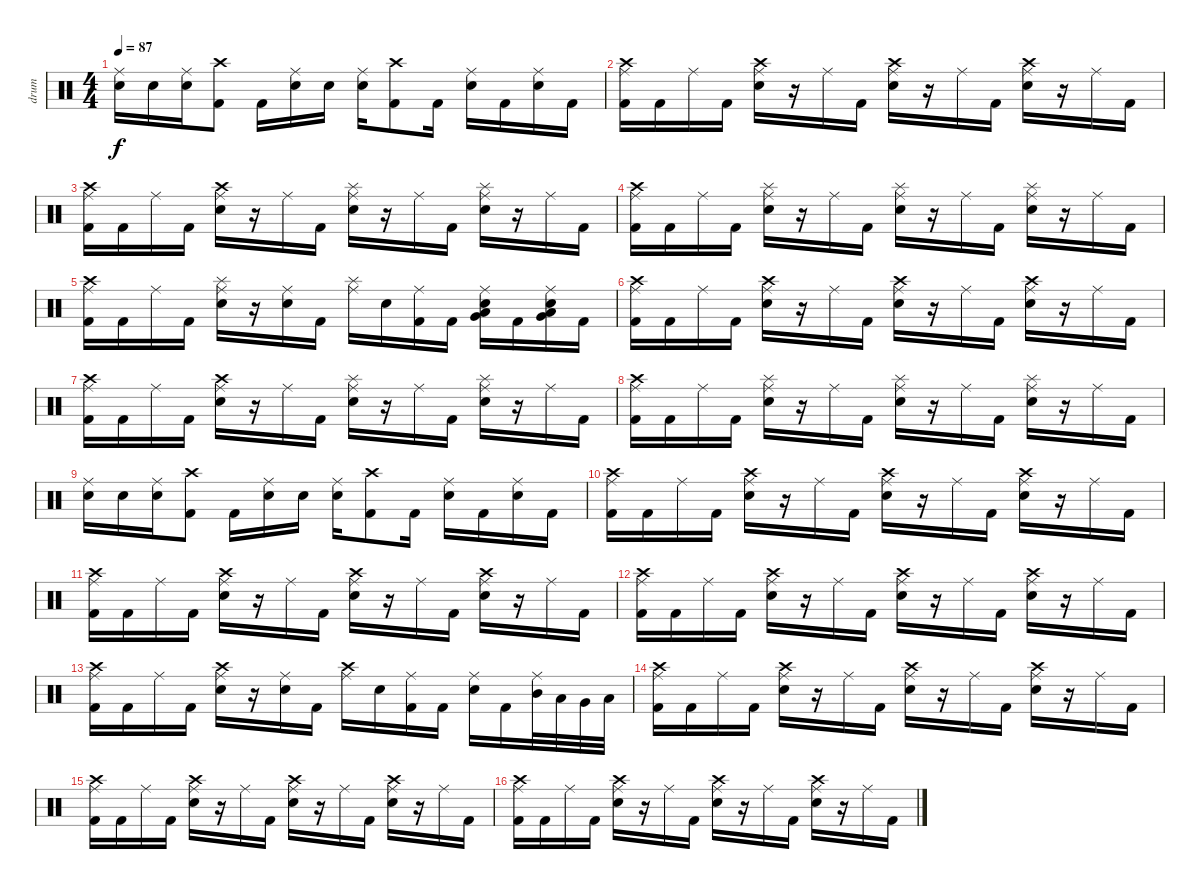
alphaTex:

\track ("drum" "drum") {instrument percussion}
\staff {score}
\articulation defaults
\ts (4 4)
\tempo 87
\clef neutral
\ks c
("Ride (middle)" "Electric Snare (hit)").16{dy f} "Electric Snare (hit)".16 ("Ride (middle)" "Electric Snare (hit)").16 ("Crash high (hit)" "Kick (hit) 2").8 "Kick (hit) 2".16 ("Ride (middle)" "Electric Snare (hit)").16 "Electric Snare (hit)".16 ("Ride (middle)" "Electric Snare (hit)").16 ("Crash high (hit)" "Kick (hit) 2").8 "Kick (hit) 2".16 ("Ride (middle)" "Electric Snare (hit)").16 "Kick (hit) 2".16 ("Ride (middle)" "Electric Snare (hit)").16 "Kick (hit) 2".16 |
("Crash high (hit)" "Ride (middle)" "Kick (hit) 2").16 "Kick (hit) 2".16 "Ride (middle)".16 "Kick (hit) 2".16 ("Crash high (hit)" "Ride (middle)" "Electric Snare (hit)").16 r.16 "Ride (middle)".16 "Kick (hit) 2".16 ("Crash high (hit)" "Ride (middle)" "Electric Snare (hit)").16 r.16 "Ride (middle)".16 "Kick (hit) 2".16 ("Crash high (hit)" "Ride (middle)" "Electric Snare (hit)").16 r.16 "Ride (middle)".16 "Kick (hit) 2".16 |
("Crash high (hit)" "Ride (middle)" "Kick (hit) 2").16 "Kick (hit) 2".16 "Ride (middle)".16 "Kick (hit) 2".16 ("Crash high (hit)" "Ride (middle)" "Electric Snare (hit)").16 r.16 "Ride (middle)".16 "Kick (hit) 2".16 ("Splash (hit)" "Ride (middle)" "Electric Snare (hit)").16 r.16 "Ride (middle)".16 "Kick (hit) 2".16 ("Splash (hit)" "Ride (middle)" "Electric Snare (hit)").16 r.16 "Ride (middle)".16 "Kick (hit) 2".16 |
("Crash high (hit)" "Ride (middle)" "Kick (hit) 2").16 "Kick (hit) 2".16 "Ride (middle)".16 "Kick (hit) 2".16 ("Splash (hit)" "Ride (middle)" "Electric Snare (hit)").16 r.16 "Ride (middle)".16 "Kick (hit) 2".16 ("Splash (hit)" "Ride (middle)" "Electric Snare (hit)").16 r.16 "Ride (middle)".16 "Kick (hit) 2".16 ("Splash (hit)" "Ride (middle)" "Electric Snare (hit)").16 r.16 "Ride (middle)".16 "Kick (hit) 2".16 |
("Crash high (hit)" "Ride (middle)" "Kick (hit) 2").16 "Kick (hit) 2".16 "Ride (middle)".16 "Kick (hit) 2".16 ("Splash (hit)" "Ride (middle)" "Electric Snare (hit)").16 r.16 ("Ride (middle)" "Electric Snare (hit)").16 "Kick (hit) 2".16 ("Splash (hit)" "Ride (middle)").16 "Electric Snare (hit)".16 ("Ride (middle)" "Kick (hit) 2").16 "Kick (hit) 2".16 ("Ride (middle)" "Low Floor Tom (hit)" "Electric Snare (hit)" "Very Low Tom (hit)").16 "Kick (hit) 2".16 ("Ride (middle)" "Low Floor Tom (hit)" "Electric Snare (hit)" "Very Low Tom (hit)").16 "Kick (hit) 2".16 |
("Crash high (hit)" "Ride (middle)" "Kick (hit) 2").16 "Kick (hit) 2".16 "Ride (middle)".16 "Kick (hit) 2".16 ("Crash high (hit)" "Ride (middle)" "Electric Snare (hit)").16 r.16 "Ride (middle)".16 "Kick (hit) 2".16 ("Crash high (hit)" "Ride (middle)" "Electric Snare (hit)").16 r.16 "Ride (middle)".16 "Kick (hit) 2".16 ("Crash high (hit)" "Ride (middle)" "Electric Snare (hit)").16 r.16 "Ride (middle)".16 "Kick (hit) 2".16 |
("Crash high (hit)" "Ride (middle)" "Kick (hit) 2").16 "Kick (hit) 2".16 "Ride (middle)".16 "Kick (hit) 2".16 ("Crash high (hit)" "Ride (middle)" "Electric Snare (hit)").16 r.16 "Ride (middle)".16 "Kick (hit) 2".16 ("Splash (hit)" "Ride (middle)" "Electric Snare (hit)").16 r.16 "Ride (middle)".16 "Kick (hit) 2".16 ("Splash (hit)" "Ride (middle)" "Electric Snare (hit)").16 r.16 "Ride (middle)".16 "Kick (hit) 2".16 |
("Crash high (hit)" "Ride (middle)" "Kick (hit) 2").16 "Kick (hit) 2".16 "Ride (middle)".16 "Kick (hit) 2".16 ("Splash (hit)" "Ride (middle)" "Electric Snare (hit)").16 r.16 "Ride (middle)".16 "Kick (hit) 2".16 ("Splash (hit)" "Ride (middle)" "Electric Snare (hit)").16 r.16 "Ride (middle)".16 "Kick (hit) 2".16 ("Splash (hit)" "Ride (middle)" "Electric Snare (hit)").16 r.16 "Ride (middle)".16 "Kick (hit) 2".16 |
("Ride (middle)" "Electric Snare (hit)").16 "Electric Snare (hit)".16 ("Ride (middle)" "Electric Snare (hit)").16 ("Crash high (hit)" "Kick (hit) 2").8 "Kick (hit) 2".16 ("Ride (middle)" "Electric Snare (hit)").16 "Electric Snare (hit)".16 ("Ride (middle)" "Electric Snare (hit)").16 ("Crash high (hit)" "Kick (hit) 2").8 "Kick (hit) 2".16 ("Ride (middle)" "Electric Snare (hit)").16 "Kick (hit) 2".16 ("Ride (middle)" "Electric Snare (hit)").16 "Kick (hit) 2".16 |
("Crash high (hit)" "Ride (middle)" "Kick (hit) 2").16 "Kick (hit) 2".16 "Ride (middle)".16 "Kick (hit) 2".16 ("Crash high (hit)" "Ride (middle)" "Electric Snare (hit)").16 r.16 "Ride (middle)".16 "Kick (hit) 2".16 ("Crash high (hit)" "Ride (middle)" "Electric Snare (hit)").16 r.16 "Ride (middle)".16 "Kick (hit) 2".16 ("Crash high (hit)" "Ride (middle)" "Electric Snare (hit)").16 r.16 "Ride (middle)".16 "Kick (hit) 2".16 |
("Crash high (hit)" "Ride (middle)" "Kick (hit) 2").16 "Kick (hit) 2".16 "Ride (middle)".16 "Kick (hit) 2".16 ("Crash high (hit)" "Ride (middle)" "Electric Snare (hit)").16 r.16 "Ride (middle)".16 "Kick (hit) 2".16 ("Crash high (hit)" "Ride (middle)" "Electric Snare (hit)").16 r.16 "Ride (middle)".16 "Kick (hit) 2".16 ("Crash high (hit)" "Ride (middle)" "Electric Snare (hit)").16 r.16 "Ride (middle)".16 "Kick (hit) 2".16 |
("Crash high (hit)" "Ride (middle)" "Kick (hit) 2").16 "Kick (hit) 2".16 "Ride (middle)".16 "Kick (hit) 2".16 ("Crash high (hit)" "Ride (middle)" "Electric Snare (hit)").16 r.16 "Ride (middle)".16 "Kick (hit) 2".16 ("Crash high (hit)" "Ride (middle)" "Electric Snare (hit)").16 r.16 "Ride (middle)".16 "Kick (hit) 2".16 ("Crash high (hit)" "Ride (middle)" "Electric Snare (hit)").16 r.16 "Ride (middle)".16 "Kick (hit) 2".16 |
("Crash high (hit)" "Ride (middle)" "Kick (hit) 2").16 "Kick (hit) 2".16 "Ride (middle)".16 "Kick (hit) 2".16 ("Crash high (hit)" "Ride (middle)" "Electric Snare (hit)").16 r.16 ("Ride (middle)" "Electric Snare (hit)").16 "Kick (hit) 2".16 ("Crash high (hit)" "Ride (middle)").16 "Electric Snare (hit)".16 ("Ride (middle)" "Kick (hit) 2").16 "Kick (hit) 2".16 ("Ride (middle)" "Electric Snare (hit)").16 "Kick (hit) 2".16 ("Ride (middle)" "Mid Tom (hit)").32 "Low Tom (hit)".32 "Very Low Tom (hit)".32 "Low Floor Tom (hit)".32 |
("Crash high (hit)" "Ride (middle)" "Kick (hit) 2").16 "Kick (hit) 2".16 "Ride (middle)".16 "Kick (hit) 2".16 ("Crash high (hit)" "Ride (middle)" "Electric Snare (hit)").16 r.16 "Ride (middle)".16 "Kick (hit) 2".16 ("Crash high (hit)" "Ride (middle)" "Electric Snare (hit)").16 r.16 "Ride (middle)".16 "Kick (hit) 2".16 ("Crash high (hit)" "Ride (middle)" "Electric Snare (hit)").16 r.16 "Ride (middle)".16 "Kick (hit) 2".16 |
("Crash high (hit)" "Ride (middle)" "Kick (hit) 2").16 "Kick (hit) 2".16 "Ride (middle)".16 "Kick (hit) 2".16 ("Crash high (hit)" "Ride (middle)" "Electric Snare (hit)").16 r.16 "Ride (middle)".16 "Kick (hit) 2".16 ("Crash high (hit)" "Ride (middle)" "Electric Snare (hit)").16 r.16 "Ride (middle)".16 "Kick (hit) 2".16 ("Crash high (hit)" "Ride (middle)" "Electric Snare (hit)").16 r.16 "Ride (middle)".16 "Kick (hit) 2".16 |
("Crash high (hit)" "Ride (middle)" "Kick (hit) 2").16 "Kick (hit) 2".16 "Ride (middle)".16 "Kick (hit) 2".16 ("Crash high (hit)" "Ride (middle)" "Electric Snare (hit)").16 r.16 "Ride (middle)".16 "Kick (hit) 2".16 ("Crash high (hit)" "Ride (middle)" "Electric Snare (hit)").16 r.16 "Ride (middle)".16 "Kick (hit) 2".16 ("Crash high (hit)" "Ride (middle)" "Electric Snare (hit)").16 r.16 "Ride (middle)".16 "Kick (hit) 2".16
